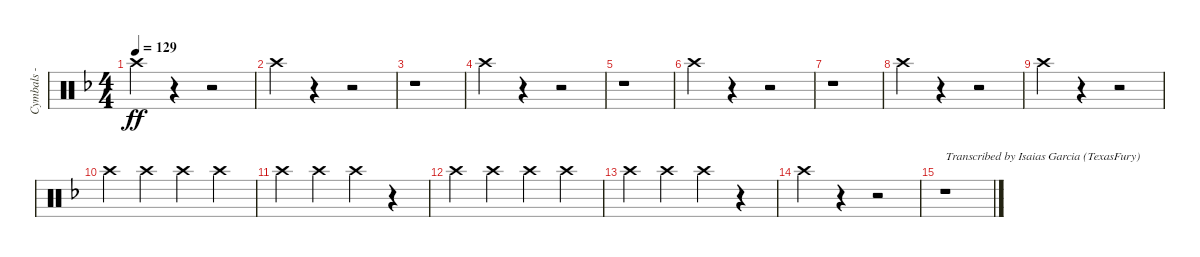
\track ("Cymbals - crash" "Cymbals - ") {instrument percussion}
\staff {score}
\articulation defaults
\ts (4 4)
\tempo 129
\clef neutral
\ks dminor "Crash high (hit)".4{dy ff}
r.4 r.2 |
"Crash high (hit)".4 r.4 r.2 |
r.1 |
"Crash high (hit)".4 r.4 r.2 |
r.1 |
"Crash high (hit)".4 r.4 r.2 |
r.1 |
"Crash high (hit)".4 r.4 r.2 |
"Crash high (hit)".4 r.4 r.2 |
"Crash high (hit)".4{balance 6} "Crash high (hit)".4 "Crash high (hit)".4 "Crash high (hit)".4 |
"Crash high (hit)".4 "Crash high (hit)".4 "Crash high (hit)".4 r.4 |
"Crash high (hit)".4 "Crash high (hit)".4 "Crash high (hit)".4 "Crash high (hit)".4 |
"Crash high (hit)".4 "Crash high (hit)".4 "Crash high (hit)".4 r.4 |
"Crash high (hit)".4{volume 0} r.4 r.2 |
r.1{txt "Transcribed by Isaias Garcia (TexasFury)"}
